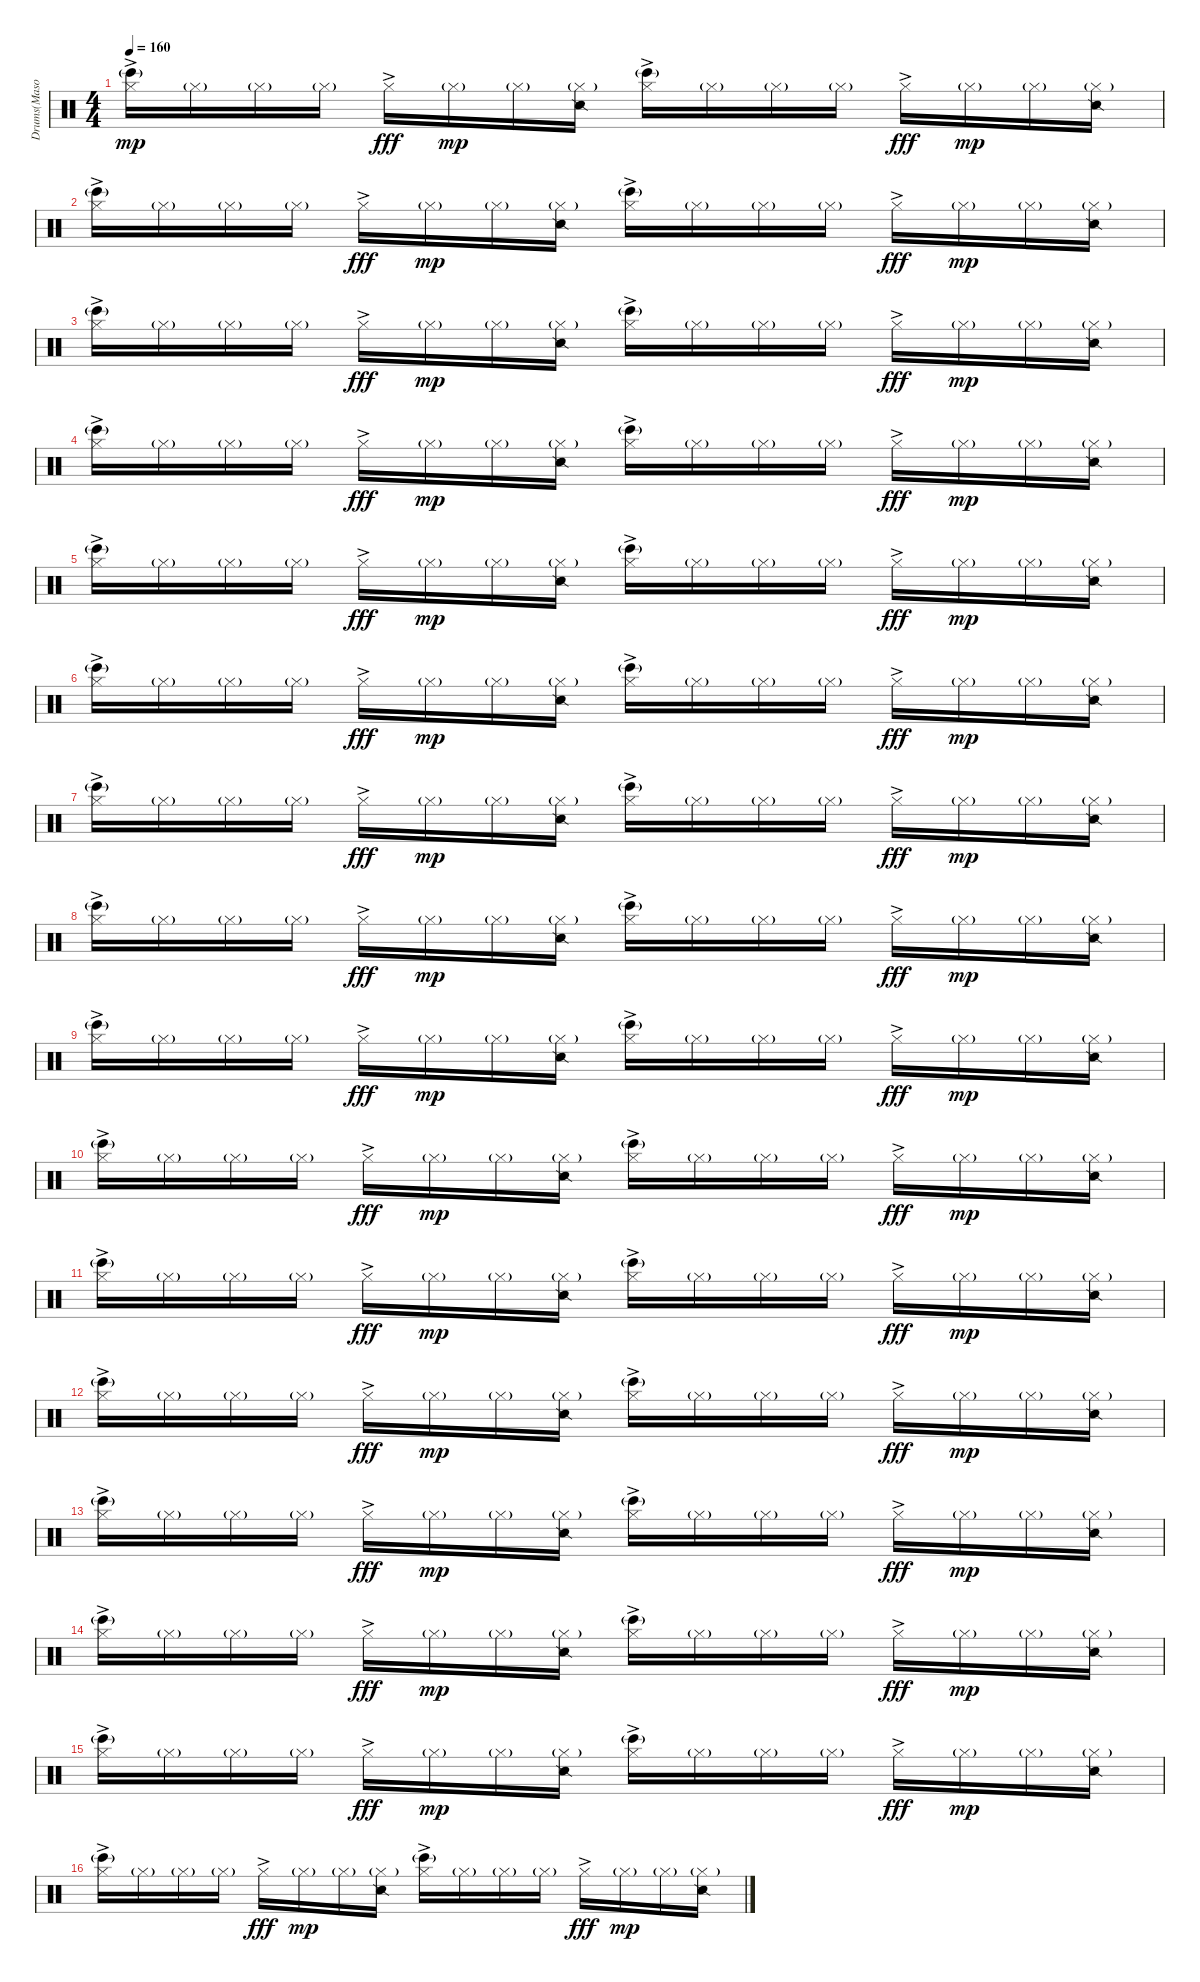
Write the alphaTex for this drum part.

\track ("Drums(Mason)" "Drums(Maso") {instrument percussion}
\staff {score}
\articulation defaults
\ts (4 4)
\tempo 160
\clef neutral
\ks c
("Hi-Hat (closed)"{ac} "Bongo High (hit)"{g}).16{dy mp} "Hi-Hat (closed)"{g}.16 "Hi-Hat (closed)"{g}.16 "Hi-Hat (closed)"{g}.16 "Hi-Hat (closed)"{ac}.16{dy fff} "Hi-Hat (closed)"{g}.16{dy mp} "Hi-Hat (closed)"{g}.16 ("Hi-Hat (closed)"{g} "Snare (side stick) 2").16 ("Hi-Hat (closed)"{ac} "Bongo High (hit)"{g}).16 "Hi-Hat (closed)"{g}.16 "Hi-Hat (closed)"{g}.16 "Hi-Hat (closed)"{g}.16 "Hi-Hat (closed)"{ac}.16{dy fff} "Hi-Hat (closed)"{g}.16{dy mp} "Hi-Hat (closed)"{g}.16 ("Hi-Hat (closed)"{g} "Snare (side stick) 2").16 |
("Hi-Hat (closed)"{ac} "Bongo High (hit)"{g}).16 "Hi-Hat (closed)"{g}.16 "Hi-Hat (closed)"{g}.16 "Hi-Hat (closed)"{g}.16 "Hi-Hat (closed)"{ac}.16{dy fff} "Hi-Hat (closed)"{g}.16{dy mp} "Hi-Hat (closed)"{g}.16 ("Hi-Hat (closed)"{g} "Snare (side stick) 2").16 ("Hi-Hat (closed)"{ac} "Bongo High (hit)"{g}).16 "Hi-Hat (closed)"{g}.16 "Hi-Hat (closed)"{g}.16 "Hi-Hat (closed)"{g}.16 "Hi-Hat (closed)"{ac}.16{dy fff} "Hi-Hat (closed)"{g}.16{dy mp} "Hi-Hat (closed)"{g}.16 ("Hi-Hat (closed)"{g} "Snare (side stick) 2").16 |
("Hi-Hat (closed)"{ac} "Bongo High (hit)"{g}).16 "Hi-Hat (closed)"{g}.16 "Hi-Hat (closed)"{g}.16 "Hi-Hat (closed)"{g}.16 "Hi-Hat (closed)"{ac}.16{dy fff} "Hi-Hat (closed)"{g}.16{dy mp} "Hi-Hat (closed)"{g}.16 ("Hi-Hat (closed)"{g} "Snare (side stick) 2").16 ("Hi-Hat (closed)"{ac} "Bongo High (hit)"{g}).16 "Hi-Hat (closed)"{g}.16 "Hi-Hat (closed)"{g}.16 "Hi-Hat (closed)"{g}.16 "Hi-Hat (closed)"{ac}.16{dy fff} "Hi-Hat (closed)"{g}.16{dy mp} "Hi-Hat (closed)"{g}.16 ("Hi-Hat (closed)"{g} "Snare (side stick) 2").16 |
("Hi-Hat (closed)"{ac} "Bongo High (hit)"{g}).16 "Hi-Hat (closed)"{g}.16 "Hi-Hat (closed)"{g}.16 "Hi-Hat (closed)"{g}.16 "Hi-Hat (closed)"{ac}.16{dy fff} "Hi-Hat (closed)"{g}.16{dy mp} "Hi-Hat (closed)"{g}.16 ("Hi-Hat (closed)"{g} "Snare (side stick) 2").16 ("Hi-Hat (closed)"{ac} "Bongo High (hit)"{g}).16 "Hi-Hat (closed)"{g}.16 "Hi-Hat (closed)"{g}.16 "Hi-Hat (closed)"{g}.16 "Hi-Hat (closed)"{ac}.16{dy fff} "Hi-Hat (closed)"{g}.16{dy mp} "Hi-Hat (closed)"{g}.16 ("Hi-Hat (closed)"{g} "Snare (side stick) 2").16 |
("Hi-Hat (closed)"{ac} "Bongo High (hit)"{g}).16 "Hi-Hat (closed)"{g}.16 "Hi-Hat (closed)"{g}.16 "Hi-Hat (closed)"{g}.16 "Hi-Hat (closed)"{ac}.16{dy fff} "Hi-Hat (closed)"{g}.16{dy mp} "Hi-Hat (closed)"{g}.16 ("Hi-Hat (closed)"{g} "Snare (side stick) 2").16 ("Hi-Hat (closed)"{ac} "Bongo High (hit)"{g}).16 "Hi-Hat (closed)"{g}.16 "Hi-Hat (closed)"{g}.16 "Hi-Hat (closed)"{g}.16 "Hi-Hat (closed)"{ac}.16{dy fff} "Hi-Hat (closed)"{g}.16{dy mp} "Hi-Hat (closed)"{g}.16 ("Hi-Hat (closed)"{g} "Snare (side stick) 2").16 |
("Hi-Hat (closed)"{ac} "Bongo High (hit)"{g}).16 "Hi-Hat (closed)"{g}.16 "Hi-Hat (closed)"{g}.16 "Hi-Hat (closed)"{g}.16 "Hi-Hat (closed)"{ac}.16{dy fff} "Hi-Hat (closed)"{g}.16{dy mp} "Hi-Hat (closed)"{g}.16 ("Hi-Hat (closed)"{g} "Snare (side stick) 2").16 ("Hi-Hat (closed)"{ac} "Bongo High (hit)"{g}).16 "Hi-Hat (closed)"{g}.16 "Hi-Hat (closed)"{g}.16 "Hi-Hat (closed)"{g}.16 "Hi-Hat (closed)"{ac}.16{dy fff} "Hi-Hat (closed)"{g}.16{dy mp} "Hi-Hat (closed)"{g}.16 ("Hi-Hat (closed)"{g} "Snare (side stick) 2").16 |
("Hi-Hat (closed)"{ac} "Bongo High (hit)"{g}).16 "Hi-Hat (closed)"{g}.16 "Hi-Hat (closed)"{g}.16 "Hi-Hat (closed)"{g}.16 "Hi-Hat (closed)"{ac}.16{dy fff} "Hi-Hat (closed)"{g}.16{dy mp} "Hi-Hat (closed)"{g}.16 ("Hi-Hat (closed)"{g} "Snare (side stick) 2").16 ("Hi-Hat (closed)"{ac} "Bongo High (hit)"{g}).16 "Hi-Hat (closed)"{g}.16 "Hi-Hat (closed)"{g}.16 "Hi-Hat (closed)"{g}.16 "Hi-Hat (closed)"{ac}.16{dy fff} "Hi-Hat (closed)"{g}.16{dy mp} "Hi-Hat (closed)"{g}.16 ("Hi-Hat (closed)"{g} "Snare (side stick) 2").16 |
("Hi-Hat (closed)"{ac} "Bongo High (hit)"{g}).16 "Hi-Hat (closed)"{g}.16 "Hi-Hat (closed)"{g}.16 "Hi-Hat (closed)"{g}.16 "Hi-Hat (closed)"{ac}.16{dy fff} "Hi-Hat (closed)"{g}.16{dy mp} "Hi-Hat (closed)"{g}.16 ("Hi-Hat (closed)"{g} "Snare (side stick) 2").16 ("Hi-Hat (closed)"{ac} "Bongo High (hit)"{g}).16 "Hi-Hat (closed)"{g}.16 "Hi-Hat (closed)"{g}.16 "Hi-Hat (closed)"{g}.16 "Hi-Hat (closed)"{ac}.16{dy fff} "Hi-Hat (closed)"{g}.16{dy mp} "Hi-Hat (closed)"{g}.16 ("Hi-Hat (closed)"{g} "Snare (side stick) 2").16 |
("Hi-Hat (closed)"{ac} "Bongo High (hit)"{g}).16 "Hi-Hat (closed)"{g}.16 "Hi-Hat (closed)"{g}.16 "Hi-Hat (closed)"{g}.16 "Hi-Hat (closed)"{ac}.16{dy fff} "Hi-Hat (closed)"{g}.16{dy mp} "Hi-Hat (closed)"{g}.16 ("Hi-Hat (closed)"{g} "Snare (side stick) 2").16 ("Hi-Hat (closed)"{ac} "Bongo High (hit)"{g}).16 "Hi-Hat (closed)"{g}.16 "Hi-Hat (closed)"{g}.16 "Hi-Hat (closed)"{g}.16 "Hi-Hat (closed)"{ac}.16{dy fff} "Hi-Hat (closed)"{g}.16{dy mp} "Hi-Hat (closed)"{g}.16 ("Hi-Hat (closed)"{g} "Snare (side stick) 2").16 |
("Hi-Hat (closed)"{ac} "Bongo High (hit)"{g}).16 "Hi-Hat (closed)"{g}.16 "Hi-Hat (closed)"{g}.16 "Hi-Hat (closed)"{g}.16 "Hi-Hat (closed)"{ac}.16{dy fff} "Hi-Hat (closed)"{g}.16{dy mp} "Hi-Hat (closed)"{g}.16 ("Hi-Hat (closed)"{g} "Snare (side stick) 2").16 ("Hi-Hat (closed)"{ac} "Bongo High (hit)"{g}).16 "Hi-Hat (closed)"{g}.16 "Hi-Hat (closed)"{g}.16 "Hi-Hat (closed)"{g}.16 "Hi-Hat (closed)"{ac}.16{dy fff} "Hi-Hat (closed)"{g}.16{dy mp} "Hi-Hat (closed)"{g}.16 ("Hi-Hat (closed)"{g} "Snare (side stick) 2").16 |
("Hi-Hat (closed)"{ac} "Bongo High (hit)"{g}).16 "Hi-Hat (closed)"{g}.16 "Hi-Hat (closed)"{g}.16 "Hi-Hat (closed)"{g}.16 "Hi-Hat (closed)"{ac}.16{dy fff} "Hi-Hat (closed)"{g}.16{dy mp} "Hi-Hat (closed)"{g}.16 ("Hi-Hat (closed)"{g} "Snare (side stick) 2").16 ("Hi-Hat (closed)"{ac} "Bongo High (hit)"{g}).16 "Hi-Hat (closed)"{g}.16 "Hi-Hat (closed)"{g}.16 "Hi-Hat (closed)"{g}.16 "Hi-Hat (closed)"{ac}.16{dy fff} "Hi-Hat (closed)"{g}.16{dy mp} "Hi-Hat (closed)"{g}.16 ("Hi-Hat (closed)"{g} "Snare (side stick) 2").16 |
("Hi-Hat (closed)"{ac} "Bongo High (hit)"{g}).16 "Hi-Hat (closed)"{g}.16 "Hi-Hat (closed)"{g}.16 "Hi-Hat (closed)"{g}.16 "Hi-Hat (closed)"{ac}.16{dy fff} "Hi-Hat (closed)"{g}.16{dy mp} "Hi-Hat (closed)"{g}.16 ("Hi-Hat (closed)"{g} "Snare (side stick) 2").16 ("Hi-Hat (closed)"{ac} "Bongo High (hit)"{g}).16 "Hi-Hat (closed)"{g}.16 "Hi-Hat (closed)"{g}.16 "Hi-Hat (closed)"{g}.16 "Hi-Hat (closed)"{ac}.16{dy fff} "Hi-Hat (closed)"{g}.16{dy mp} "Hi-Hat (closed)"{g}.16 ("Hi-Hat (closed)"{g} "Snare (side stick) 2").16 |
("Hi-Hat (closed)"{ac} "Bongo High (hit)"{g}).16 "Hi-Hat (closed)"{g}.16 "Hi-Hat (closed)"{g}.16 "Hi-Hat (closed)"{g}.16 "Hi-Hat (closed)"{ac}.16{dy fff} "Hi-Hat (closed)"{g}.16{dy mp} "Hi-Hat (closed)"{g}.16 ("Hi-Hat (closed)"{g} "Snare (side stick) 2").16 ("Hi-Hat (closed)"{ac} "Bongo High (hit)"{g}).16 "Hi-Hat (closed)"{g}.16 "Hi-Hat (closed)"{g}.16 "Hi-Hat (closed)"{g}.16 "Hi-Hat (closed)"{ac}.16{dy fff} "Hi-Hat (closed)"{g}.16{dy mp} "Hi-Hat (closed)"{g}.16 ("Hi-Hat (closed)"{g} "Snare (side stick) 2").16 |
("Hi-Hat (closed)"{ac} "Bongo High (hit)"{g}).16 "Hi-Hat (closed)"{g}.16 "Hi-Hat (closed)"{g}.16 "Hi-Hat (closed)"{g}.16 "Hi-Hat (closed)"{ac}.16{dy fff} "Hi-Hat (closed)"{g}.16{dy mp} "Hi-Hat (closed)"{g}.16 ("Hi-Hat (closed)"{g} "Snare (side stick) 2").16 ("Hi-Hat (closed)"{ac} "Bongo High (hit)"{g}).16 "Hi-Hat (closed)"{g}.16 "Hi-Hat (closed)"{g}.16 "Hi-Hat (closed)"{g}.16 "Hi-Hat (closed)"{ac}.16{dy fff} "Hi-Hat (closed)"{g}.16{dy mp} "Hi-Hat (closed)"{g}.16 ("Hi-Hat (closed)"{g} "Snare (side stick) 2").16 |
("Hi-Hat (closed)"{ac} "Bongo High (hit)"{g}).16 "Hi-Hat (closed)"{g}.16 "Hi-Hat (closed)"{g}.16 "Hi-Hat (closed)"{g}.16 "Hi-Hat (closed)"{ac}.16{dy fff} "Hi-Hat (closed)"{g}.16{dy mp} "Hi-Hat (closed)"{g}.16 ("Hi-Hat (closed)"{g} "Snare (side stick) 2").16 ("Hi-Hat (closed)"{ac} "Bongo High (hit)"{g}).16 "Hi-Hat (closed)"{g}.16 "Hi-Hat (closed)"{g}.16 "Hi-Hat (closed)"{g}.16 "Hi-Hat (closed)"{ac}.16{dy fff} "Hi-Hat (closed)"{g}.16{dy mp} "Hi-Hat (closed)"{g}.16 ("Hi-Hat (closed)"{g} "Snare (side stick) 2").16 |
("Hi-Hat (closed)"{ac} "Bongo High (hit)"{g}).16 "Hi-Hat (closed)"{g}.16 "Hi-Hat (closed)"{g}.16 "Hi-Hat (closed)"{g}.16 "Hi-Hat (closed)"{ac}.16{dy fff} "Hi-Hat (closed)"{g}.16{dy mp} "Hi-Hat (closed)"{g}.16 ("Hi-Hat (closed)"{g} "Snare (side stick) 2").16 ("Hi-Hat (closed)"{ac} "Bongo High (hit)"{g}).16 "Hi-Hat (closed)"{g}.16 "Hi-Hat (closed)"{g}.16 "Hi-Hat (closed)"{g}.16 "Hi-Hat (closed)"{ac}.16{dy fff} "Hi-Hat (closed)"{g}.16{dy mp} "Hi-Hat (closed)"{g}.16 ("Hi-Hat (closed)"{g} "Snare (side stick) 2").16
